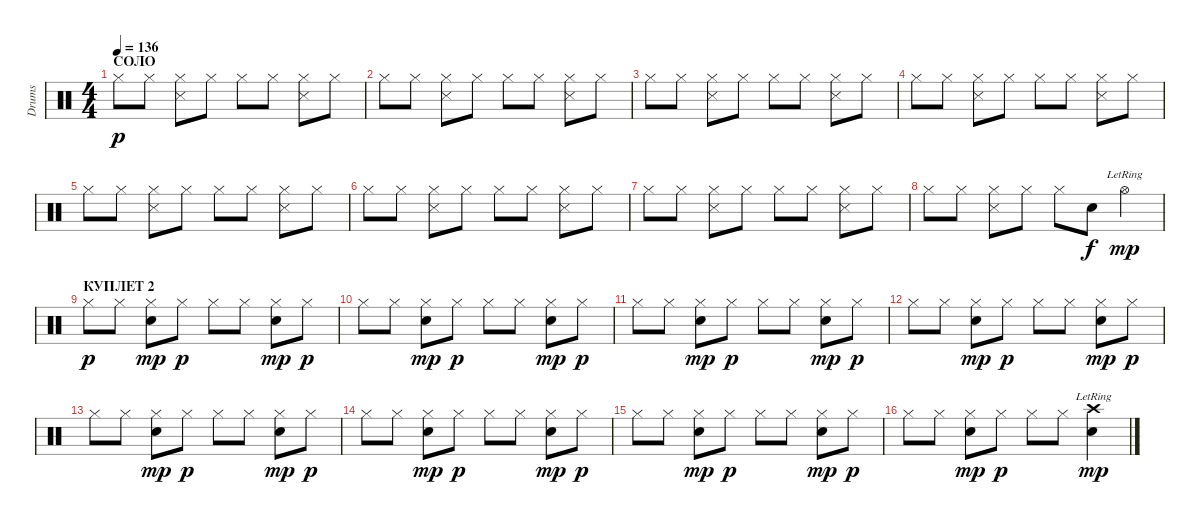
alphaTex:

\track ("Drums" "Drums") {instrument percussion}
\staff {score}
\articulation defaults
\ts (4 4)
\section ("" "СОЛО")
\tempo 136
\clef neutral
\ks c "Hi-Hat (closed)".8{dy p} "Hi-Hat (closed)".8
("Hi-Hat (closed)" "Snare (side stick) 3").8 "Hi-Hat (closed)".8 "Hi-Hat (closed)".8 "Hi-Hat (closed)".8 ("Hi-Hat (closed)" "Snare (side stick) 3").8 "Hi-Hat (closed)".8 |
"Hi-Hat (closed)".8 "Hi-Hat (closed)".8 ("Hi-Hat (closed)" "Snare (side stick) 3").8 "Hi-Hat (closed)".8 "Hi-Hat (closed)".8 "Hi-Hat (closed)".8 ("Hi-Hat (closed)" "Snare (side stick) 3").8 "Hi-Hat (closed)".8 |
"Hi-Hat (closed)".8 "Hi-Hat (closed)".8 ("Hi-Hat (closed)" "Snare (side stick) 3").8 "Hi-Hat (closed)".8 "Hi-Hat (closed)".8 "Hi-Hat (closed)".8 ("Hi-Hat (closed)" "Snare (side stick) 3").8 "Hi-Hat (closed)".8 |
"Hi-Hat (closed)".8 "Hi-Hat (closed)".8 ("Hi-Hat (closed)" "Snare (side stick) 3").8 "Hi-Hat (closed)".8 "Hi-Hat (closed)".8 "Hi-Hat (closed)".8 ("Hi-Hat (closed)" "Snare (side stick) 3").8 "Hi-Hat (closed)".8 |
"Hi-Hat (closed)".8 "Hi-Hat (closed)".8 ("Hi-Hat (closed)" "Snare (side stick) 3").8 "Hi-Hat (closed)".8 "Hi-Hat (closed)".8 "Hi-Hat (closed)".8 ("Hi-Hat (closed)" "Snare (side stick) 3").8 "Hi-Hat (closed)".8 |
"Hi-Hat (closed)".8 "Hi-Hat (closed)".8 ("Hi-Hat (closed)" "Snare (side stick) 3").8 "Hi-Hat (closed)".8 "Hi-Hat (closed)".8 "Hi-Hat (closed)".8 ("Hi-Hat (closed)" "Snare (side stick) 3").8 "Hi-Hat (closed)".8 |
"Hi-Hat (closed)".8 "Hi-Hat (closed)".8 ("Hi-Hat (closed)" "Snare (side stick) 3").8 "Hi-Hat (closed)".8 "Hi-Hat (closed)".8 "Hi-Hat (closed)".8 ("Hi-Hat (closed)" "Snare (side stick) 3").8 "Hi-Hat (closed)".8 |
"Hi-Hat (closed)".8 "Hi-Hat (closed)".8 ("Hi-Hat (closed)" "Snare (side stick) 3").8 "Hi-Hat (closed)".8 "Hi-Hat (closed)".8 "Electric Snare (hit)".8{dy f} "Hi-Hat (open)"{lr}.4{dy mp} |
\section ("" "КУПЛЕТ 2")
"Hi-Hat (closed)".8{dy p} "Hi-Hat (closed)".8 ("Hi-Hat (closed)" "Electric Snare (hit)").8{dy mp} "Hi-Hat (closed)".8{dy p} "Hi-Hat (closed)".8 "Hi-Hat (closed)".8 ("Hi-Hat (closed)" "Electric Snare (hit)").8{dy mp} "Hi-Hat (closed)".8{dy p} |
"Hi-Hat (closed)".8 "Hi-Hat (closed)".8 ("Hi-Hat (closed)" "Electric Snare (hit)").8{dy mp} "Hi-Hat (closed)".8{dy p} "Hi-Hat (closed)".8 "Hi-Hat (closed)".8 ("Hi-Hat (closed)" "Electric Snare (hit)").8{dy mp} "Hi-Hat (closed)".8{dy p} |
"Hi-Hat (closed)".8 "Hi-Hat (closed)".8 ("Hi-Hat (closed)" "Electric Snare (hit)").8{dy mp} "Hi-Hat (closed)".8{dy p} "Hi-Hat (closed)".8 "Hi-Hat (closed)".8 ("Hi-Hat (closed)" "Electric Snare (hit)").8{dy mp} "Hi-Hat (closed)".8{dy p} |
"Hi-Hat (closed)".8 "Hi-Hat (closed)".8 ("Hi-Hat (closed)" "Electric Snare (hit)").8{dy mp} "Hi-Hat (closed)".8{dy p} "Hi-Hat (closed)".8 "Hi-Hat (closed)".8 ("Hi-Hat (closed)" "Electric Snare (hit)").8{dy mp} "Hi-Hat (closed)".8{dy p} |
"Hi-Hat (closed)".8 "Hi-Hat (closed)".8 ("Hi-Hat (closed)" "Electric Snare (hit)").8{dy mp} "Hi-Hat (closed)".8{dy p} "Hi-Hat (closed)".8 "Hi-Hat (closed)".8 ("Hi-Hat (closed)" "Electric Snare (hit)").8{dy mp} "Hi-Hat (closed)".8{dy p} |
"Hi-Hat (closed)".8 "Hi-Hat (closed)".8 ("Hi-Hat (closed)" "Electric Snare (hit)").8{dy mp} "Hi-Hat (closed)".8{dy p} "Hi-Hat (closed)".8 "Hi-Hat (closed)".8 ("Hi-Hat (closed)" "Electric Snare (hit)").8{dy mp} "Hi-Hat (closed)".8{dy p} |
"Hi-Hat (closed)".8 "Hi-Hat (closed)".8 ("Hi-Hat (closed)" "Electric Snare (hit)").8{dy mp} "Hi-Hat (closed)".8{dy p} "Hi-Hat (closed)".8 "Hi-Hat (closed)".8 ("Hi-Hat (closed)" "Electric Snare (hit)").8{dy mp} "Hi-Hat (closed)".8{dy p} |
"Hi-Hat (closed)".8 "Hi-Hat (closed)".8 ("Hi-Hat (closed)" "Electric Snare (hit)").8{dy mp} "Hi-Hat (closed)".8{dy p} "Hi-Hat (closed)".8 "Hi-Hat (closed)".8 ("Crash high (hit)"{lr} "Electric Snare (hit)").4{dy mp}
